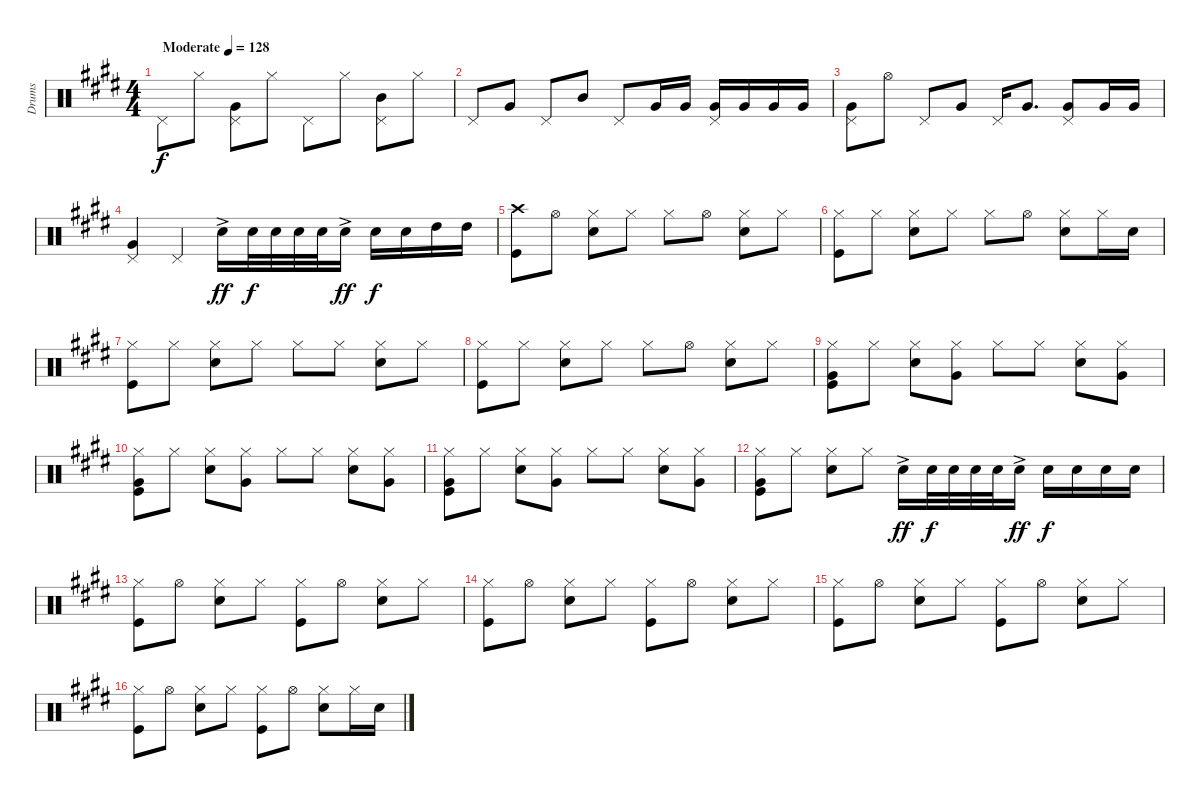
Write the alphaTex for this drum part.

\track ("Drums" "Drums") {instrument percussion}
\staff {score}
\articulation defaults
\ts (4 4)
\tempo (128 "Moderate")
\clef neutral
\ks c#minor "Pedal Hi-Hat (hit)".8{dy f} "Hi-Hat (closed)".8
("Pedal Hi-Hat (hit)" "Very Low Tom (hit)").8 "Hi-Hat (closed)".8 "Pedal Hi-Hat (hit)".8 "Hi-Hat (closed)".8 ("Pedal Hi-Hat (hit)" "Mid Tom (hit)").8 "Hi-Hat (closed)".8 |
"Pedal Hi-Hat (hit)".8 "Very Low Tom (hit)".8 "Pedal Hi-Hat (hit)".8 "Mid Tom (hit)".8 "Pedal Hi-Hat (hit)".8 "Very Low Tom (hit)".16 "Very Low Tom (hit)".16 ("Very Low Tom (hit)" "Pedal Hi-Hat (hit)").16 "Very Low Tom (hit)".16 "Very Low Tom (hit)".16 "Very Low Tom (hit)".16 |
("Very Low Tom (hit)" "Pedal Hi-Hat (hit)").8 "Hi-Hat (open)".8 "Pedal Hi-Hat (hit)".8 "Very Low Tom (hit)".8 "Pedal Hi-Hat (hit)".16 "Very Low Tom (hit)".8{d} ("Pedal Hi-Hat (hit)" "Very Low Tom (hit)").8 "Very Low Tom (hit)".16 "Very Low Tom (hit)".16 |
("Very Low Tom (hit)" "Pedal Hi-Hat (hit)").4 "Pedal Hi-Hat (hit)".4 "Snare (hit) 2"{ac}.16{dy ff} "Snare (hit) 2".32{dy f} "Snare (hit) 2".32 "Snare (hit) 2".32 "Snare (hit) 2".32 "Snare (hit) 2"{ac}.16{dy ff} "Snare (hit) 2".16{dy f} "Snare (hit) 2".16 "High Tom (hit)".16 "High Tom (hit)".16 |
("Crash high (hit)" "Kick (hit)").8 "Hi-Hat (open)".8 ("Hi-Hat (closed)" "Snare (hit) 2").8 "Hi-Hat (closed)".8 "Hi-Hat (closed)".8 "Hi-Hat (open)".8 ("Hi-Hat (closed)" "Snare (hit) 2").8 "Hi-Hat (closed)".8 |
("Hi-Hat (closed)" "Kick (hit)").8 "Hi-Hat (closed)".8 ("Hi-Hat (closed)" "Snare (hit) 2").8 "Hi-Hat (closed)".8 "Hi-Hat (closed)".8 "Hi-Hat (open)".8 ("Hi-Hat (closed)" "Snare (hit) 2").8 "Hi-Hat (closed)".16 "Snare (hit) 2".16 |
("Hi-Hat (closed)" "Kick (hit)").8 "Hi-Hat (closed)".8 ("Hi-Hat (closed)" "Snare (hit) 2").8 "Hi-Hat (closed)".8 "Hi-Hat (closed)".8 "Hi-Hat (closed)".8 ("Hi-Hat (closed)" "Snare (hit) 2").8 "Hi-Hat (closed)".8 |
("Hi-Hat (closed)" "Kick (hit)").8 "Hi-Hat (closed)".8 ("Hi-Hat (closed)" "Snare (hit) 2").8 "Hi-Hat (closed)".8 "Hi-Hat (closed)".8 "Hi-Hat (open)".8 ("Hi-Hat (closed)" "Snare (hit) 2").8 "Hi-Hat (closed)".8 |
("Hi-Hat (closed)" "Kick (hit)" "Very Low Tom (hit)").8 "Hi-Hat (closed)".8 ("Hi-Hat (closed)" "Snare (hit) 2").8 ("Hi-Hat (closed)" "Very Low Tom (hit)").8 "Hi-Hat (closed)".8 "Hi-Hat (closed)".8 ("Hi-Hat (closed)" "Snare (hit) 2").8 ("Hi-Hat (closed)" "Very Low Tom (hit)").8 |
("Hi-Hat (closed)" "Kick (hit)" "Very Low Tom (hit)").8 "Hi-Hat (closed)".8 ("Hi-Hat (closed)" "Snare (hit) 2").8 ("Hi-Hat (closed)" "Very Low Tom (hit)").8 "Hi-Hat (closed)".8 "Hi-Hat (closed)".8 ("Hi-Hat (closed)" "Snare (hit) 2").8 ("Hi-Hat (closed)" "Very Low Tom (hit)").8 |
("Hi-Hat (closed)" "Kick (hit)" "Very Low Tom (hit)").8 "Hi-Hat (closed)".8 ("Hi-Hat (closed)" "Snare (hit) 2").8 ("Hi-Hat (closed)" "Very Low Tom (hit)").8 "Hi-Hat (closed)".8 "Hi-Hat (closed)".8 ("Hi-Hat (closed)" "Snare (hit) 2").8 ("Very Low Tom (hit)" "Hi-Hat (closed)").8 |
("Hi-Hat (closed)" "Kick (hit)" "Very Low Tom (hit)").8 "Hi-Hat (closed)".8 ("Hi-Hat (closed)" "Snare (hit) 2").8 "Hi-Hat (closed)".8 "Snare (hit) 2"{ac}.16{dy ff} "Snare (hit) 2".32{dy f} "Snare (hit) 2".32 "Snare (hit) 2".32 "Snare (hit) 2".32 "Snare (hit) 2"{ac}.16{dy ff} "Snare (hit) 2".16{dy f} "Snare (hit) 2".16 "Snare (hit) 2".16 "Snare (hit) 2".16 |
("Kick (hit)" "Hi-Hat (closed)").8 "Hi-Hat (open)".8 ("Hi-Hat (closed)" "Snare (hit) 2").8 "Hi-Hat (closed)".8 ("Hi-Hat (closed)" "Kick (hit)").8 "Hi-Hat (open)".8 ("Hi-Hat (closed)" "Snare (hit) 2").8 "Hi-Hat (closed)".8 |
("Kick (hit)" "Hi-Hat (closed)").8 "Hi-Hat (open)".8 ("Hi-Hat (closed)" "Snare (hit) 2").8 "Hi-Hat (closed)".8 ("Hi-Hat (closed)" "Kick (hit)").8 "Hi-Hat (open)".8 ("Hi-Hat (closed)" "Snare (hit) 2").8 "Hi-Hat (closed)".8 |
("Kick (hit)" "Hi-Hat (closed)").8 "Hi-Hat (open)".8 ("Hi-Hat (closed)" "Snare (hit) 2").8 "Hi-Hat (closed)".8 ("Hi-Hat (closed)" "Kick (hit)").8 "Hi-Hat (open)".8 ("Hi-Hat (closed)" "Snare (hit) 2").8 "Hi-Hat (closed)".8 |
("Kick (hit)" "Hi-Hat (closed)").8 "Hi-Hat (open)".8 ("Hi-Hat (closed)" "Snare (hit) 2").8 "Hi-Hat (closed)".8 ("Hi-Hat (closed)" "Kick (hit)").8 "Hi-Hat (open)".8 ("Hi-Hat (closed)" "Snare (hit) 2").8 "Hi-Hat (closed)".16 "Snare (hit) 2".16
